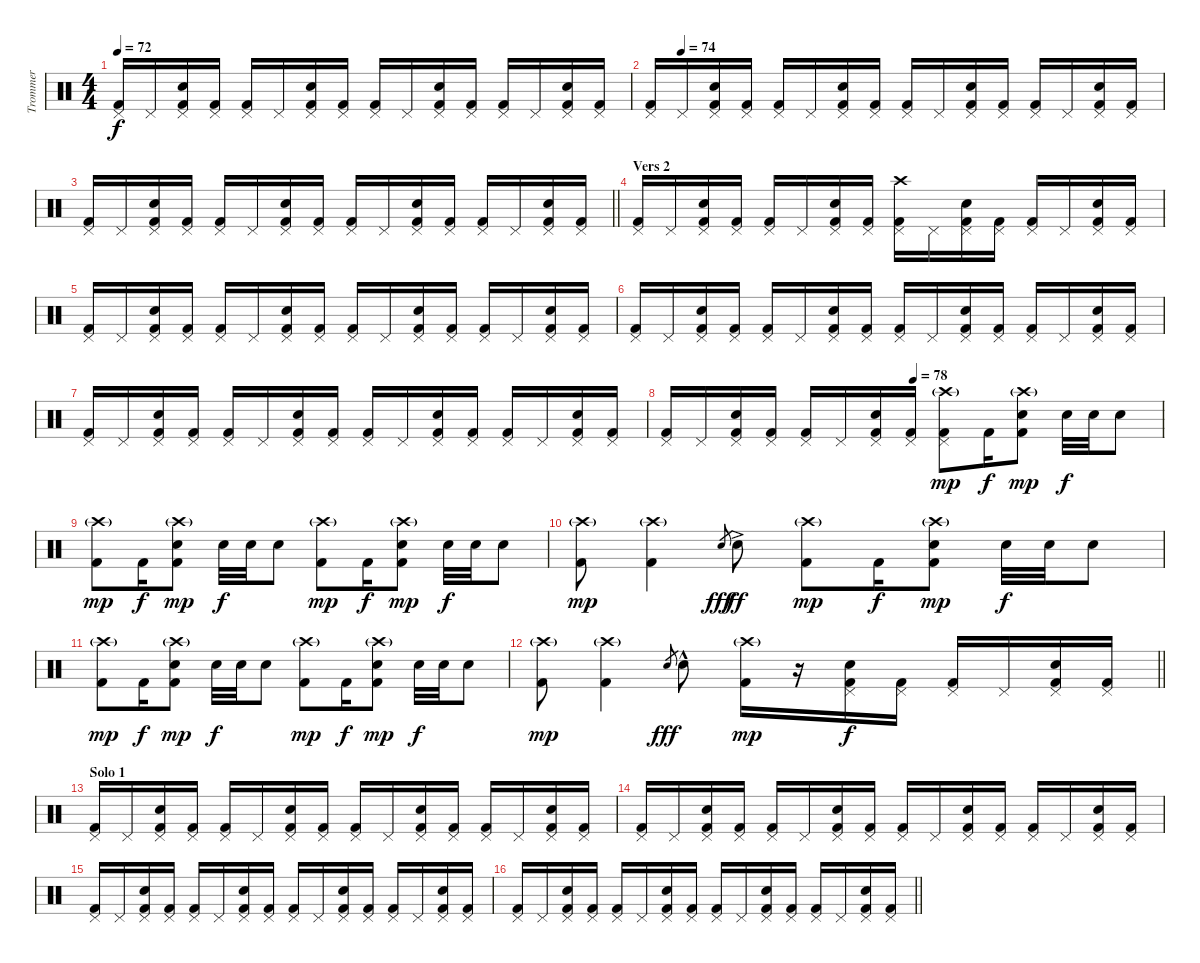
\track ("Trommer" "Trommer") {instrument percussion}
\staff {score}
\articulation defaults
\ts (4 4)
\tempo 72
\clef neutral
\ks c
("Pedal Hi-Hat (hit)" "Kick (hit) 2").16{dy f} "Pedal Hi-Hat (hit)".16 ("Pedal Hi-Hat (hit)" "Kick (hit) 2" "Electric Snare (hit)").16 ("Pedal Hi-Hat (hit)" "Kick (hit) 2").16 ("Pedal Hi-Hat (hit)" "Kick (hit) 2").16 "Pedal Hi-Hat (hit)".16 ("Pedal Hi-Hat (hit)" "Kick (hit) 2" "Electric Snare (hit)").16 ("Pedal Hi-Hat (hit)" "Kick (hit) 2").16 ("Pedal Hi-Hat (hit)" "Kick (hit) 2").16 "Pedal Hi-Hat (hit)".16 ("Pedal Hi-Hat (hit)" "Kick (hit) 2" "Electric Snare (hit)").16 ("Pedal Hi-Hat (hit)" "Kick (hit) 2").16 ("Pedal Hi-Hat (hit)" "Kick (hit) 2").16 "Pedal Hi-Hat (hit)".16 ("Pedal Hi-Hat (hit)" "Kick (hit) 2" "Electric Snare (hit)").16 ("Pedal Hi-Hat (hit)" "Kick (hit) 2").16 |
\tempo (74 0.0625)
("Pedal Hi-Hat (hit)" "Kick (hit) 2").16 "Pedal Hi-Hat (hit)".16 ("Pedal Hi-Hat (hit)" "Kick (hit) 2" "Electric Snare (hit)").16 ("Pedal Hi-Hat (hit)" "Kick (hit) 2").16 ("Pedal Hi-Hat (hit)" "Kick (hit) 2").16 "Pedal Hi-Hat (hit)".16 ("Pedal Hi-Hat (hit)" "Kick (hit) 2" "Electric Snare (hit)").16 ("Pedal Hi-Hat (hit)" "Kick (hit) 2").16 ("Pedal Hi-Hat (hit)" "Kick (hit) 2").16 "Pedal Hi-Hat (hit)".16 ("Pedal Hi-Hat (hit)" "Kick (hit) 2" "Electric Snare (hit)").16 ("Pedal Hi-Hat (hit)" "Kick (hit) 2").16 ("Pedal Hi-Hat (hit)" "Kick (hit) 2").16 "Pedal Hi-Hat (hit)".16 ("Pedal Hi-Hat (hit)" "Kick (hit) 2" "Electric Snare (hit)").16 ("Pedal Hi-Hat (hit)" "Kick (hit) 2").16 |
\barLineRight lightlight
("Pedal Hi-Hat (hit)" "Kick (hit) 2").16 "Pedal Hi-Hat (hit)".16 ("Pedal Hi-Hat (hit)" "Kick (hit) 2" "Electric Snare (hit)").16 ("Pedal Hi-Hat (hit)" "Kick (hit) 2").16 ("Pedal Hi-Hat (hit)" "Kick (hit) 2").16 "Pedal Hi-Hat (hit)".16 ("Pedal Hi-Hat (hit)" "Kick (hit) 2" "Electric Snare (hit)").16 ("Pedal Hi-Hat (hit)" "Kick (hit) 2").16 ("Pedal Hi-Hat (hit)" "Kick (hit) 2").16 "Pedal Hi-Hat (hit)".16 ("Pedal Hi-Hat (hit)" "Kick (hit) 2" "Electric Snare (hit)").16 ("Pedal Hi-Hat (hit)" "Kick (hit) 2").16 ("Pedal Hi-Hat (hit)" "Kick (hit) 2").16 "Pedal Hi-Hat (hit)".16 ("Pedal Hi-Hat (hit)" "Kick (hit) 2" "Electric Snare (hit)").16 ("Pedal Hi-Hat (hit)" "Kick (hit) 2").16 |
\section ("" "Vers 2")
("Pedal Hi-Hat (hit)" "Kick (hit) 2").16 "Pedal Hi-Hat (hit)".16 ("Pedal Hi-Hat (hit)" "Kick (hit) 2" "Electric Snare (hit)").16 ("Pedal Hi-Hat (hit)" "Kick (hit) 2").16 ("Pedal Hi-Hat (hit)" "Kick (hit) 2").16 "Pedal Hi-Hat (hit)".16 ("Pedal Hi-Hat (hit)" "Kick (hit) 2" "Electric Snare (hit)").16 ("Pedal Hi-Hat (hit)" "Kick (hit) 2").16 ("Pedal Hi-Hat (hit)" "Kick (hit) 2" "Crash high (hit)").16 "Pedal Hi-Hat (hit)".16 ("Pedal Hi-Hat (hit)" "Kick (hit) 2" "Electric Snare (hit)").16 ("Pedal Hi-Hat (hit)" "Kick (hit) 2").16 ("Pedal Hi-Hat (hit)" "Kick (hit) 2").16 "Pedal Hi-Hat (hit)".16 ("Pedal Hi-Hat (hit)" "Kick (hit) 2" "Electric Snare (hit)").16 ("Pedal Hi-Hat (hit)" "Kick (hit) 2").16 |
("Pedal Hi-Hat (hit)" "Kick (hit) 2").16 "Pedal Hi-Hat (hit)".16 ("Pedal Hi-Hat (hit)" "Kick (hit) 2" "Electric Snare (hit)").16 ("Pedal Hi-Hat (hit)" "Kick (hit) 2").16 ("Pedal Hi-Hat (hit)" "Kick (hit) 2").16 "Pedal Hi-Hat (hit)".16 ("Pedal Hi-Hat (hit)" "Kick (hit) 2" "Electric Snare (hit)").16 ("Pedal Hi-Hat (hit)" "Kick (hit) 2").16 ("Pedal Hi-Hat (hit)" "Kick (hit) 2").16 "Pedal Hi-Hat (hit)".16 ("Pedal Hi-Hat (hit)" "Kick (hit) 2" "Electric Snare (hit)").16 ("Pedal Hi-Hat (hit)" "Kick (hit) 2").16 ("Pedal Hi-Hat (hit)" "Kick (hit) 2").16 "Pedal Hi-Hat (hit)".16 ("Pedal Hi-Hat (hit)" "Kick (hit) 2" "Electric Snare (hit)").16 ("Pedal Hi-Hat (hit)" "Kick (hit) 2").16 |
("Pedal Hi-Hat (hit)" "Kick (hit) 2").16 "Pedal Hi-Hat (hit)".16 ("Pedal Hi-Hat (hit)" "Kick (hit) 2" "Electric Snare (hit)").16 ("Pedal Hi-Hat (hit)" "Kick (hit) 2").16 ("Pedal Hi-Hat (hit)" "Kick (hit) 2").16 "Pedal Hi-Hat (hit)".16 ("Pedal Hi-Hat (hit)" "Kick (hit) 2" "Electric Snare (hit)").16 ("Pedal Hi-Hat (hit)" "Kick (hit) 2").16 ("Pedal Hi-Hat (hit)" "Kick (hit) 2").16 "Pedal Hi-Hat (hit)".16 ("Pedal Hi-Hat (hit)" "Kick (hit) 2" "Electric Snare (hit)").16 ("Pedal Hi-Hat (hit)" "Kick (hit) 2").16 ("Pedal Hi-Hat (hit)" "Kick (hit) 2").16 "Pedal Hi-Hat (hit)".16 ("Pedal Hi-Hat (hit)" "Kick (hit) 2" "Electric Snare (hit)").16 ("Pedal Hi-Hat (hit)" "Kick (hit) 2").16 |
("Pedal Hi-Hat (hit)" "Kick (hit) 2").16 "Pedal Hi-Hat (hit)".16 ("Pedal Hi-Hat (hit)" "Kick (hit) 2" "Electric Snare (hit)").16 ("Pedal Hi-Hat (hit)" "Kick (hit) 2").16 ("Pedal Hi-Hat (hit)" "Kick (hit) 2").16 "Pedal Hi-Hat (hit)".16 ("Pedal Hi-Hat (hit)" "Kick (hit) 2" "Electric Snare (hit)").16 ("Pedal Hi-Hat (hit)" "Kick (hit) 2").16 ("Pedal Hi-Hat (hit)" "Kick (hit) 2").16 "Pedal Hi-Hat (hit)".16 ("Pedal Hi-Hat (hit)" "Kick (hit) 2" "Electric Snare (hit)").16 ("Pedal Hi-Hat (hit)" "Kick (hit) 2").16 ("Pedal Hi-Hat (hit)" "Kick (hit) 2").16 "Pedal Hi-Hat (hit)".16 ("Pedal Hi-Hat (hit)" "Kick (hit) 2" "Electric Snare (hit)").16 ("Pedal Hi-Hat (hit)" "Kick (hit) 2").16 |
\tempo (78 0.5)
("Pedal Hi-Hat (hit)" "Kick (hit) 2").16 "Pedal Hi-Hat (hit)".16 ("Pedal Hi-Hat (hit)" "Kick (hit) 2" "Electric Snare (hit)").16 ("Pedal Hi-Hat (hit)" "Kick (hit) 2").16 ("Pedal Hi-Hat (hit)" "Kick (hit) 2").16 "Pedal Hi-Hat (hit)".16 ("Pedal Hi-Hat (hit)" "Kick (hit) 2" "Electric Snare (hit)").16 ("Pedal Hi-Hat (hit)" "Kick (hit) 2").16 ("Pedal Hi-Hat (hit)" "Kick (hit) 2" "Crash high (hit)"{g}).8{dy mp} "Kick (hit) 2".16{dy f} ("Kick (hit) 2" "Electric Snare (hit)" "Crash high (hit)"{g}).8{dy mp} "Electric Snare (hit)".32{dy f} "Electric Snare (hit)".32 "Electric Snare (hit)".8 |
("Kick (hit) 2" "Crash high (hit)"{g}).8{dy mp} "Kick (hit) 2".16{dy f} ("Kick (hit) 2" "Electric Snare (hit)" "Crash high (hit)"{g}).8{dy mp} "Electric Snare (hit)".32{dy f} "Electric Snare (hit)".32 "Electric Snare (hit)".8 ("Kick (hit) 2" "Crash high (hit)"{g}).8{dy mp} "Kick (hit) 2".16{dy f} ("Kick (hit) 2" "Electric Snare (hit)" "Crash high (hit)"{g}).8{dy mp} "Electric Snare (hit)".32{dy f} "Electric Snare (hit)".32 "Electric Snare (hit)".8 |
("Kick (hit) 2" "Crash high (hit)"{g}).8{dy mp} ("Kick (hit) 2" "Crash high (hit)"{g}).4 "Electric Snare (hit)".8{gr dy fff} "Electric Snare (hit)"{ac}.8{dy ff} ("Kick (hit) 2" "Crash high (hit)"{g}).8{dy mp} "Kick (hit) 2".16{dy f} ("Kick (hit) 2" "Electric Snare (hit)" "Crash high (hit)"{g}).8{dy mp} "Electric Snare (hit)".32{dy f} "Electric Snare (hit)".32 "Electric Snare (hit)".8 |
("Kick (hit) 2" "Crash high (hit)"{g}).8{dy mp} "Kick (hit) 2".16{dy f} ("Kick (hit) 2" "Electric Snare (hit)" "Crash high (hit)"{g}).8{dy mp} "Electric Snare (hit)".32{dy f} "Electric Snare (hit)".32 "Electric Snare (hit)".8 ("Kick (hit) 2" "Crash high (hit)"{g}).8{dy mp} "Kick (hit) 2".16{dy f} ("Kick (hit) 2" "Electric Snare (hit)" "Crash high (hit)"{g}).8{dy mp} "Electric Snare (hit)".32{dy f} "Electric Snare (hit)".32 "Electric Snare (hit)".8 |
\barLineRight lightlight
("Kick (hit) 2" "Crash high (hit)"{g}).8{dy mp} ("Kick (hit) 2" "Crash high (hit)"{g}).4 "Electric Snare (hit)".8{gr dy fff} "Electric Snare (hit)"{hac}.8 ("Kick (hit) 2" "Crash high (hit)"{g}).16{dy mp} r.16 ("Pedal Hi-Hat (hit)" "Kick (hit) 2" "Electric Snare (hit)").16{dy f} ("Pedal Hi-Hat (hit)" "Kick (hit) 2").16 ("Pedal Hi-Hat (hit)" "Kick (hit) 2").16 "Pedal Hi-Hat (hit)".16 ("Pedal Hi-Hat (hit)" "Kick (hit) 2" "Electric Snare (hit)").16 ("Pedal Hi-Hat (hit)" "Kick (hit) 2").16 |
\section ("" "Solo 1")
("Pedal Hi-Hat (hit)" "Kick (hit) 2").16 "Pedal Hi-Hat (hit)".16 ("Pedal Hi-Hat (hit)" "Kick (hit) 2" "Electric Snare (hit)").16 ("Pedal Hi-Hat (hit)" "Kick (hit) 2").16 ("Pedal Hi-Hat (hit)" "Kick (hit) 2").16 "Pedal Hi-Hat (hit)".16 ("Pedal Hi-Hat (hit)" "Kick (hit) 2" "Electric Snare (hit)").16 ("Pedal Hi-Hat (hit)" "Kick (hit) 2").16 ("Pedal Hi-Hat (hit)" "Kick (hit) 2").16 "Pedal Hi-Hat (hit)".16 ("Pedal Hi-Hat (hit)" "Kick (hit) 2" "Electric Snare (hit)").16 ("Pedal Hi-Hat (hit)" "Kick (hit) 2").16 ("Pedal Hi-Hat (hit)" "Kick (hit) 2").16 "Pedal Hi-Hat (hit)".16 ("Pedal Hi-Hat (hit)" "Kick (hit) 2" "Electric Snare (hit)").16 ("Pedal Hi-Hat (hit)" "Kick (hit) 2").16 |
("Pedal Hi-Hat (hit)" "Kick (hit) 2").16 "Pedal Hi-Hat (hit)".16 ("Pedal Hi-Hat (hit)" "Kick (hit) 2" "Electric Snare (hit)").16 ("Pedal Hi-Hat (hit)" "Kick (hit) 2").16 ("Pedal Hi-Hat (hit)" "Kick (hit) 2").16 "Pedal Hi-Hat (hit)".16 ("Pedal Hi-Hat (hit)" "Kick (hit) 2" "Electric Snare (hit)").16 ("Pedal Hi-Hat (hit)" "Kick (hit) 2").16 ("Pedal Hi-Hat (hit)" "Kick (hit) 2").16 "Pedal Hi-Hat (hit)".16 ("Pedal Hi-Hat (hit)" "Kick (hit) 2" "Electric Snare (hit)").16 ("Pedal Hi-Hat (hit)" "Kick (hit) 2").16 ("Pedal Hi-Hat (hit)" "Kick (hit) 2").16 "Pedal Hi-Hat (hit)".16 ("Pedal Hi-Hat (hit)" "Kick (hit) 2" "Electric Snare (hit)").16 ("Pedal Hi-Hat (hit)" "Kick (hit) 2").16 |
("Pedal Hi-Hat (hit)" "Kick (hit) 2").16 "Pedal Hi-Hat (hit)".16 ("Pedal Hi-Hat (hit)" "Kick (hit) 2" "Electric Snare (hit)").16 ("Pedal Hi-Hat (hit)" "Kick (hit) 2").16 ("Pedal Hi-Hat (hit)" "Kick (hit) 2").16 "Pedal Hi-Hat (hit)".16 ("Pedal Hi-Hat (hit)" "Kick (hit) 2" "Electric Snare (hit)").16 ("Pedal Hi-Hat (hit)" "Kick (hit) 2").16 ("Pedal Hi-Hat (hit)" "Kick (hit) 2").16 "Pedal Hi-Hat (hit)".16 ("Pedal Hi-Hat (hit)" "Kick (hit) 2" "Electric Snare (hit)").16 ("Pedal Hi-Hat (hit)" "Kick (hit) 2").16 ("Pedal Hi-Hat (hit)" "Kick (hit) 2").16 "Pedal Hi-Hat (hit)".16 ("Pedal Hi-Hat (hit)" "Kick (hit) 2" "Electric Snare (hit)").16 ("Pedal Hi-Hat (hit)" "Kick (hit) 2").16 |
\barLineRight lightlight
("Pedal Hi-Hat (hit)" "Kick (hit) 2").16 "Pedal Hi-Hat (hit)".16 ("Pedal Hi-Hat (hit)" "Kick (hit) 2" "Electric Snare (hit)").16 ("Pedal Hi-Hat (hit)" "Kick (hit) 2").16 ("Pedal Hi-Hat (hit)" "Kick (hit) 2").16 "Pedal Hi-Hat (hit)".16 ("Pedal Hi-Hat (hit)" "Kick (hit) 2" "Electric Snare (hit)").16 ("Pedal Hi-Hat (hit)" "Kick (hit) 2").16 ("Pedal Hi-Hat (hit)" "Kick (hit) 2").16 "Pedal Hi-Hat (hit)".16 ("Pedal Hi-Hat (hit)" "Kick (hit) 2" "Electric Snare (hit)").16 ("Pedal Hi-Hat (hit)" "Kick (hit) 2").16 ("Pedal Hi-Hat (hit)" "Kick (hit) 2").16 "Pedal Hi-Hat (hit)".16 ("Pedal Hi-Hat (hit)" "Kick (hit) 2" "Electric Snare (hit)").16 ("Pedal Hi-Hat (hit)" "Kick (hit) 2").16
